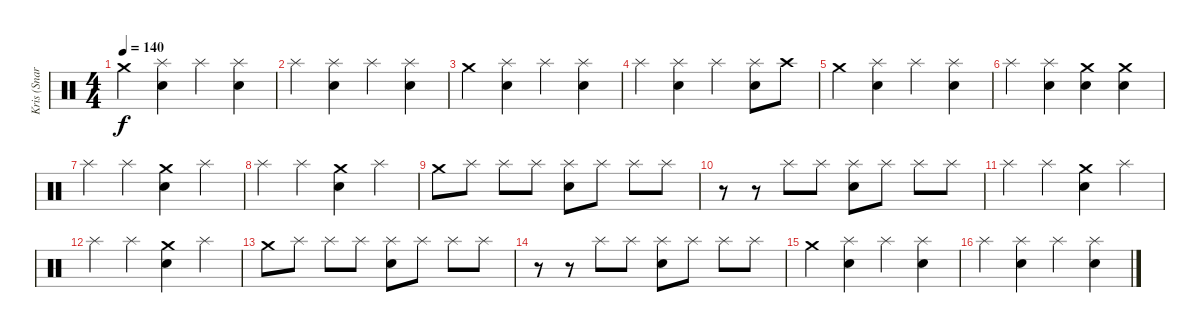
\track ("Kris (Snares & Toms)" "Kris (Snar") {instrument percussion}
\staff {score}
\articulation defaults
\ts (4 4)
\tempo 140
\clef neutral
\ks c "Crash medium (hit)".4{dy f}
("Splash (hit)" "Electric Snare (hit)").4 "Splash (hit)".4 ("Splash (hit)" "Electric Snare (hit)").4 |
"Splash (hit)".4 ("Splash (hit)" "Electric Snare (hit)").4 "Splash (hit)".4 ("Splash (hit)" "Electric Snare (hit)").4 |
"Crash medium (hit)".4 ("Splash (hit)" "Electric Snare (hit)").4 "Splash (hit)".4 ("Splash (hit)" "Electric Snare (hit)").4 |
"Splash (hit)".4 ("Splash (hit)" "Electric Snare (hit)").4 "Splash (hit)".4 ("Splash (hit)" "Electric Snare (hit)").8 "Crash high (hit)".8 |
"Crash medium (hit)".4 ("Splash (hit)" "Electric Snare (hit)").4 "Splash (hit)".4 ("Splash (hit)" "Electric Snare (hit)").4 |
"Splash (hit)".4 ("Splash (hit)" "Electric Snare (hit)").4 ("Crash medium (hit)" "Electric Snare (hit)").4 ("Crash medium (hit)" "Electric Snare (hit)").4 |
"Splash (hit)".4 "Splash (hit)".4 ("Crash medium (hit)" "Electric Snare (hit)").4 "Splash (hit)".4 |
"Splash (hit)".4 "Splash (hit)".4 ("Crash medium (hit)" "Electric Snare (hit)").4 "Splash (hit)".4 |
"Crash medium (hit)".8 "Splash (hit)".8 "Splash (hit)".8 "Splash (hit)".8 ("Splash (hit)" "Electric Snare (hit)").8 "Splash (hit)".8 "Splash (hit)".8 "Splash (hit)".8 |
r.8 r.8 "Splash (hit)".8 "Splash (hit)".8 ("Splash (hit)" "Electric Snare (hit)").8 "Splash (hit)".8 "Splash (hit)".8 "Splash (hit)".8 |
"Splash (hit)".4 "Splash (hit)".4 ("Crash medium (hit)" "Electric Snare (hit)").4 "Splash (hit)".4 |
"Splash (hit)".4 "Splash (hit)".4 ("Crash medium (hit)" "Electric Snare (hit)").4 "Splash (hit)".4 |
"Crash medium (hit)".8 "Splash (hit)".8 "Splash (hit)".8 "Splash (hit)".8 ("Splash (hit)" "Electric Snare (hit)").8 "Splash (hit)".8 "Splash (hit)".8 "Splash (hit)".8 |
r.8 r.8 "Splash (hit)".8 "Splash (hit)".8 ("Splash (hit)" "Electric Snare (hit)").8 "Splash (hit)".8 "Splash (hit)".8 "Splash (hit)".8 |
"Crash medium (hit)".4 ("Splash (hit)" "Electric Snare (hit)").4 "Splash (hit)".4 ("Splash (hit)" "Electric Snare (hit)").4 |
"Splash (hit)".4 ("Splash (hit)" "Electric Snare (hit)").4 "Splash (hit)".4 ("Splash (hit)" "Electric Snare (hit)").4
